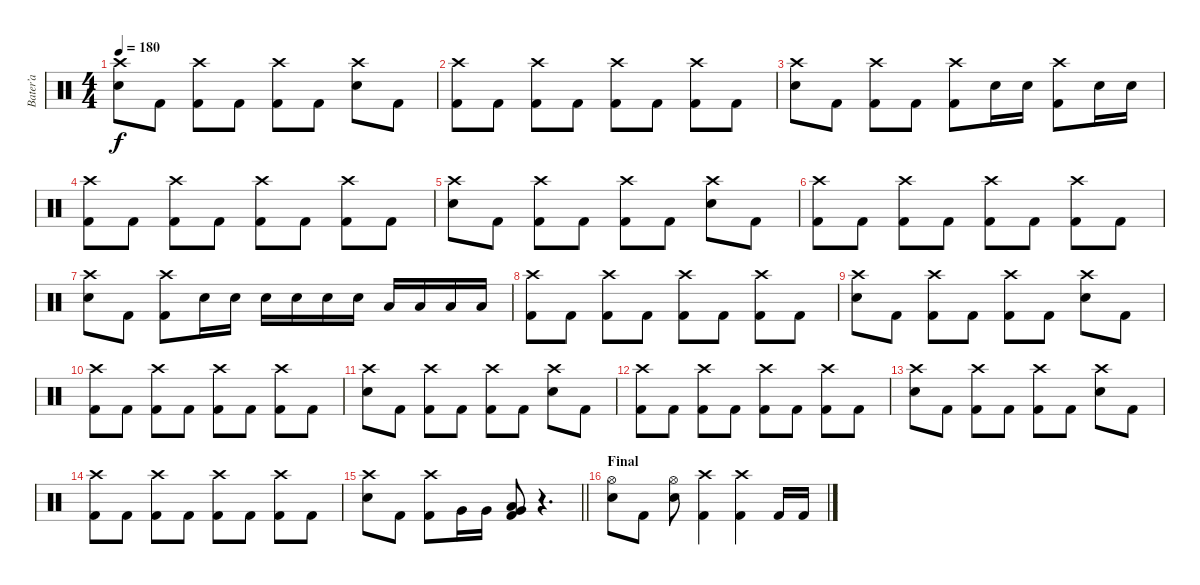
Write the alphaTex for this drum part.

\track ("Bater’a" "Bater’a") {instrument percussion bank 211}
\staff {score}
\articulation defaults
\ts (4 4)
\tempo 180
\clef neutral
\ks c
("Crash high (hit)" "Electric Snare (hit)").8{dy f} "Kick (hit) 2".8 ("Crash high (hit)" "Kick (hit) 2").8 "Kick (hit) 2".8 ("Crash high (hit)" "Kick (hit) 2").8 "Kick (hit) 2".8 ("Crash high (hit)" "Electric Snare (hit)").8 "Kick (hit) 2".8 |
("Crash high (hit)" "Kick (hit) 2").8 "Kick (hit) 2".8 ("Crash high (hit)" "Kick (hit) 2").8 "Kick (hit) 2".8 ("Crash high (hit)" "Kick (hit) 2").8 "Kick (hit) 2".8 ("Crash high (hit)" "Kick (hit) 2").8 "Kick (hit) 2".8 |
("Crash high (hit)" "Electric Snare (hit)").8 "Kick (hit) 2".8 ("Crash high (hit)" "Kick (hit) 2").8 "Kick (hit) 2".8 ("Crash high (hit)" "Kick (hit) 2").8 "Electric Snare (hit)".16 "Electric Snare (hit)".16 ("Crash high (hit)" "Kick (hit) 2").8 "Electric Snare (hit)".16 "Electric Snare (hit)".16 |
("Crash high (hit)" "Kick (hit) 2").8 "Kick (hit) 2".8 ("Crash high (hit)" "Kick (hit) 2").8 "Kick (hit) 2".8 ("Crash high (hit)" "Kick (hit) 2").8 "Kick (hit) 2".8 ("Crash high (hit)" "Kick (hit) 2").8 "Kick (hit) 2".8 |
("Crash high (hit)" "Electric Snare (hit)").8 "Kick (hit) 2".8 ("Crash high (hit)" "Kick (hit) 2").8 "Kick (hit) 2".8 ("Crash high (hit)" "Kick (hit) 2").8 "Kick (hit) 2".8 ("Crash high (hit)" "Electric Snare (hit)").8 "Kick (hit) 2".8 |
("Crash high (hit)" "Kick (hit) 2").8 "Kick (hit) 2".8 ("Crash high (hit)" "Kick (hit) 2").8 "Kick (hit) 2".8 ("Crash high (hit)" "Kick (hit) 2").8 "Kick (hit) 2".8 ("Crash high (hit)" "Kick (hit) 2").8 "Kick (hit) 2".8 |
("Crash high (hit)" "Electric Snare (hit)").8 "Kick (hit) 2".8 ("Crash high (hit)" "Kick (hit) 2").8 "Electric Snare (hit)".16 "Electric Snare (hit)".16 "Electric Snare (hit)".16 "Electric Snare (hit)".16 "Electric Snare (hit)".16 "Electric Snare (hit)".16 "Low Tom (hit)".16 "Low Tom (hit)".16 "Low Tom (hit)".16 "Low Tom (hit)".16 |
("Crash high (hit)" "Kick (hit) 2").8 "Kick (hit) 2".8 ("Crash high (hit)" "Kick (hit) 2").8 "Kick (hit) 2".8 ("Crash high (hit)" "Kick (hit) 2").8 "Kick (hit) 2".8 ("Crash high (hit)" "Kick (hit) 2").8 "Kick (hit) 2".8 |
("Crash high (hit)" "Electric Snare (hit)").8 "Kick (hit) 2".8 ("Crash high (hit)" "Kick (hit) 2").8 "Kick (hit) 2".8 ("Crash high (hit)" "Kick (hit) 2").8 "Kick (hit) 2".8 ("Crash high (hit)" "Electric Snare (hit)").8 "Kick (hit) 2".8 |
("Crash high (hit)" "Kick (hit) 2").8 "Kick (hit) 2".8 ("Crash high (hit)" "Kick (hit) 2").8 "Kick (hit) 2".8 ("Crash high (hit)" "Kick (hit) 2").8 "Kick (hit) 2".8 ("Crash high (hit)" "Kick (hit) 2").8 "Kick (hit) 2".8 |
("Crash high (hit)" "Electric Snare (hit)").8 "Kick (hit) 2".8 ("Crash high (hit)" "Kick (hit) 2").8 "Kick (hit) 2".8 ("Crash high (hit)" "Kick (hit) 2").8 "Kick (hit) 2".8 ("Crash high (hit)" "Electric Snare (hit)").8 "Kick (hit) 2".8 |
("Crash high (hit)" "Kick (hit) 2").8 "Kick (hit) 2".8 ("Crash high (hit)" "Kick (hit) 2").8 "Kick (hit) 2".8 ("Crash high (hit)" "Kick (hit) 2").8 "Kick (hit) 2".8 ("Crash high (hit)" "Kick (hit) 2").8 "Kick (hit) 2".8 |
("Crash high (hit)" "Electric Snare (hit)").8 "Kick (hit) 2".8 ("Crash high (hit)" "Kick (hit) 2").8 "Kick (hit) 2".8 ("Crash high (hit)" "Kick (hit) 2").8 "Kick (hit) 2".8 ("Crash high (hit)" "Electric Snare (hit)").8 "Kick (hit) 2".8 |
("Crash high (hit)" "Kick (hit) 2").8 "Kick (hit) 2".8 ("Crash high (hit)" "Kick (hit) 2").8 "Kick (hit) 2".8 ("Crash high (hit)" "Kick (hit) 2").8 "Kick (hit) 2".8 ("Crash high (hit)" "Kick (hit) 2").8 "Kick (hit) 2".8 |
\barLineRight lightlight
("Crash high (hit)" "Electric Snare (hit)").8 "Kick (hit) 2".8 ("Crash high (hit)" "Kick (hit) 2").8 "Very Low Tom (hit)".16 "Very Low Tom (hit)".16 ("Very Low Tom (hit)" "Low Floor Tom (hit)" "Kick (hit) 2").8 r.4{d} |
\section ("" "Final")
("Hi-Hat (open)" "Electric Snare (hit)").8 "Kick (hit) 2".8 ("Hi-Hat (open)" "Electric Snare (hit)").8 ("Crash high (hit)" "Kick (hit) 2").4 ("Crash high (hit)" "Kick (hit) 2").4 "Kick (hit) 2".16 "Kick (hit) 2".16
